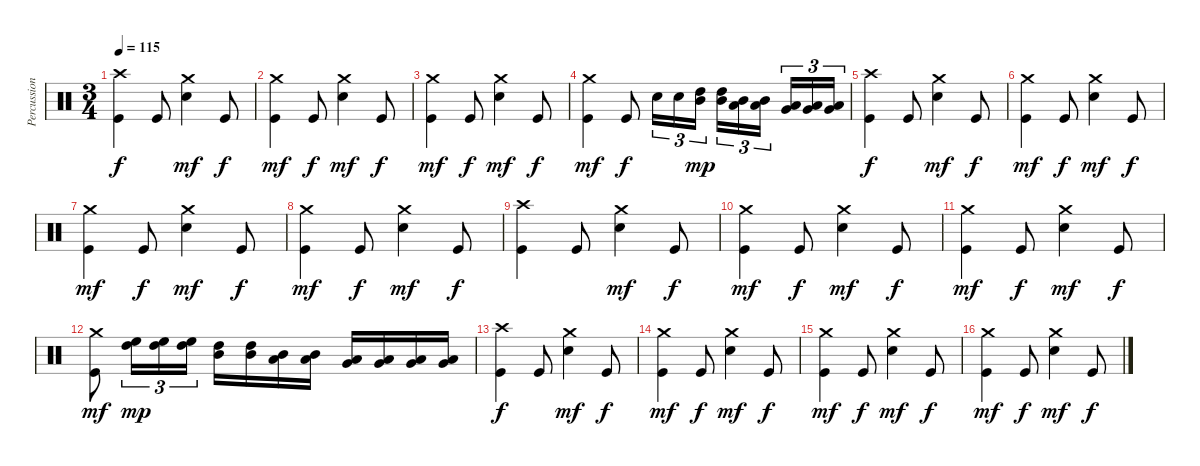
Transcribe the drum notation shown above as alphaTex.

\track ("Percussions" "Percussion") {instrument percussion}
\staff {score}
\articulation defaults
\ts (3 4)
\tempo 115
\clef neutral
\ks c
("Kick (hit)" "Crash high (hit)").4{dy f} "Kick (hit)".8 ("Electric Snare (hit)" "Crash medium (hit)").4{dy mf} "Kick (hit)".8{dy f} |
("Kick (hit)" "Crash medium (hit)").4{dy mf} "Kick (hit)".8{dy f} ("Electric Snare (hit)" "Crash medium (hit)").4{dy mf} "Kick (hit)".8{dy f} |
("Kick (hit)" "Crash medium (hit)").4{dy mf} "Kick (hit)".8{dy f} ("Electric Snare (hit)" "Crash medium (hit)").4{dy mf} "Kick (hit)".8{dy f} |
("Kick (hit)" "Crash medium (hit)").4{dy mf} "Kick (hit)".8{dy f} "Electric Snare (hit)".16{tu (3 2)} "Electric Snare (hit)".16{tu (3 2)} ("Mid Tom (hit)" "High Tom (hit)").16{tu (3 2) dy mp} ("Mid Tom (hit)" "High Tom (hit)").16{tu (3 2)} ("Low Tom (hit)" "Mid Tom (hit)").16{tu (3 2)} ("Low Tom (hit)" "Mid Tom (hit)").16{tu (3 2)} ("Very Low Tom (hit)" "Low Tom (hit)").16{tu (3 2)} ("Very Low Tom (hit)" "Low Tom (hit)").16{tu (3 2)} ("Low Floor Tom (hit)" "Very Low Tom (hit)").16{tu (3 2)} |
("Kick (hit)" "Crash high (hit)").4{dy f} "Kick (hit)".8 ("Electric Snare (hit)" "Crash medium (hit)").4{dy mf} "Kick (hit)".8{dy f} |
("Kick (hit)" "Crash medium (hit)").4{dy mf} "Kick (hit)".8{dy f} ("Electric Snare (hit)" "Crash medium (hit)").4{dy mf} "Kick (hit)".8{dy f} |
("Kick (hit)" "Crash medium (hit)").4{dy mf} "Kick (hit)".8{dy f} ("Electric Snare (hit)" "Crash medium (hit)").4{dy mf} "Kick (hit)".8{dy f} |
("Kick (hit)" "Crash medium (hit)").4{dy mf} "Kick (hit)".8{dy f} ("Electric Snare (hit)" "Crash medium (hit)").4{dy mf} "Kick (hit)".8{dy f} |
("Kick (hit)" "Crash high (hit)").4 "Kick (hit)".8 ("Electric Snare (hit)" "Crash medium (hit)").4{dy mf} "Kick (hit)".8{dy f} |
("Kick (hit)" "Crash medium (hit)").4{dy mf} "Kick (hit)".8{dy f} ("Electric Snare (hit)" "Crash medium (hit)").4{dy mf} "Kick (hit)".8{dy f} |
("Kick (hit)" "Crash medium (hit)").4{dy mf} "Kick (hit)".8{dy f} ("Electric Snare (hit)" "Crash medium (hit)").4{dy mf} "Kick (hit)".8{dy f} |
("Kick (hit)" "Crash medium (hit)").8{dy mf} ("High Tom (hit)" "High Floor Tom (hit)").16{tu (3 2) dy mp} ("High Tom (hit)" "High Floor Tom (hit)").16{tu (3 2)} ("High Tom (hit)" "High Floor Tom (hit)").16{tu (3 2)} ("Mid Tom (hit)" "High Tom (hit)").16 ("Mid Tom (hit)" "High Tom (hit)").16 ("Low Tom (hit)" "Mid Tom (hit)").16 ("Low Tom (hit)" "Mid Tom (hit)").16 ("Very Low Tom (hit)" "Low Tom (hit)").16 ("Very Low Tom (hit)" "Low Tom (hit)").16 ("Low Floor Tom (hit)" "Very Low Tom (hit)").16 ("Low Floor Tom (hit)" "Very Low Tom (hit)").16 |
("Kick (hit)" "Crash high (hit)").4{dy f} "Kick (hit)".8 ("Electric Snare (hit)" "Crash medium (hit)").4{dy mf} "Kick (hit)".8{dy f} |
("Kick (hit)" "Crash medium (hit)").4{dy mf} "Kick (hit)".8{dy f} ("Electric Snare (hit)" "Crash medium (hit)").4{dy mf} "Kick (hit)".8{dy f} |
("Kick (hit)" "Crash medium (hit)").4{dy mf} "Kick (hit)".8{dy f} ("Electric Snare (hit)" "Crash medium (hit)").4{dy mf} "Kick (hit)".8{dy f} |
("Kick (hit)" "Crash medium (hit)").4{dy mf} "Kick (hit)".8{dy f} ("Electric Snare (hit)" "Crash medium (hit)").4{dy mf} "Kick (hit)".8{dy f}
